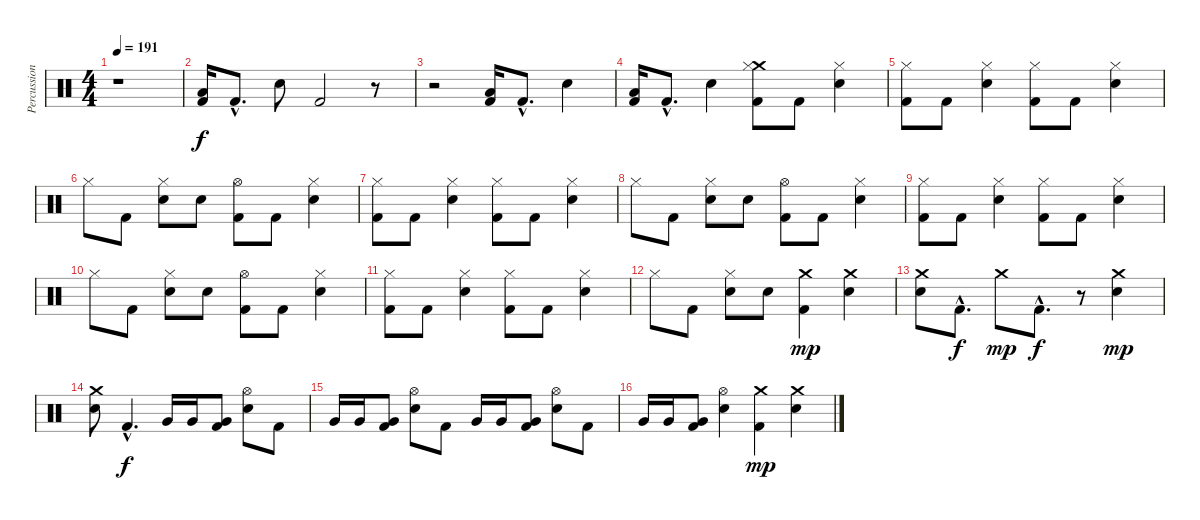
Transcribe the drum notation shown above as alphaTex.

\track ("Percussions" "Percussion") {instrument percussion}
\staff {score}
\articulation defaults
\ts (4 4)
\tempo 191
\clef neutral
\ks c
r.1{dy f} |
("Kick (hit) 2" "Low Tom (hit)").16 "Kick (hit) 2"{hac}.8{d} "Snare (hit) 2".8 "Kick (hit) 2".2 r.8 |
r.2 ("Kick (hit) 2" "Low Tom (hit)").16 "Kick (hit) 2"{hac}.8{d} "Snare (hit) 2".4 |
("Kick (hit) 2" "Low Tom (hit)").16 "Kick (hit) 2"{hac}.8{d} "Snare (hit) 2".4 ("Kick (hit) 2" "Crash medium (hit)" "Hi-Hat (closed)").8 "Kick (hit) 2".8 ("Snare (hit) 2" "Hi-Hat (closed)").4 |
("Kick (hit) 2" "Hi-Hat (closed)").8 "Kick (hit) 2".8 ("Snare (hit) 2" "Hi-Hat (closed)").4 ("Kick (hit) 2" "Hi-Hat (closed)").8 "Kick (hit) 2".8 ("Snare (hit) 2" "Hi-Hat (closed)").4 |
"Hi-Hat (closed)".8 "Kick (hit) 2".8 ("Snare (hit) 2" "Hi-Hat (closed)").8 "Snare (hit) 2".8 ("Kick (hit) 2" "Hi-Hat (open)").8 "Kick (hit) 2".8 ("Snare (hit) 2" "Hi-Hat (closed)").4 |
("Kick (hit) 2" "Hi-Hat (closed)").8 "Kick (hit) 2".8 ("Snare (hit) 2" "Hi-Hat (closed)").4 ("Kick (hit) 2" "Hi-Hat (closed)").8 "Kick (hit) 2".8 ("Snare (hit) 2" "Hi-Hat (closed)").4 |
"Hi-Hat (closed)".8 "Kick (hit) 2".8 ("Snare (hit) 2" "Hi-Hat (closed)").8 "Snare (hit) 2".8 ("Kick (hit) 2" "Hi-Hat (open)").8 "Kick (hit) 2".8 ("Snare (hit) 2" "Hi-Hat (closed)").4 |
("Kick (hit) 2" "Hi-Hat (closed)").8 "Kick (hit) 2".8 ("Snare (hit) 2" "Hi-Hat (closed)").4 ("Kick (hit) 2" "Hi-Hat (closed)").8 "Kick (hit) 2".8 ("Snare (hit) 2" "Hi-Hat (closed)").4 |
"Hi-Hat (closed)".8 "Kick (hit) 2".8 ("Snare (hit) 2" "Hi-Hat (closed)").8 "Snare (hit) 2".8 ("Kick (hit) 2" "Hi-Hat (open)").8 "Kick (hit) 2".8 ("Snare (hit) 2" "Hi-Hat (closed)").4 |
("Kick (hit) 2" "Hi-Hat (closed)").8 "Kick (hit) 2".8 ("Snare (hit) 2" "Hi-Hat (closed)").4 ("Kick (hit) 2" "Hi-Hat (closed)").8 "Kick (hit) 2".8 ("Snare (hit) 2" "Hi-Hat (closed)").4 |
"Hi-Hat (closed)".8 "Kick (hit) 2".8 ("Snare (hit) 2" "Hi-Hat (closed)").8 "Snare (hit) 2".8 ("Kick (hit) 2" "Crash medium (hit)").4{dy mp} ("Snare (hit) 2" "Crash medium (hit)").4 |
("Snare (hit) 2" "Crash medium (hit)").8 "Kick (hit) 2"{hac}.8{d dy f} "Crash medium (hit)".8{dy mp} "Kick (hit) 2"{hac}.8{d dy f} r.8 ("Snare (hit) 2" "Crash medium (hit)").4{dy mp} |
("Snare (hit) 2" "Crash medium (hit)").8 "Kick (hit) 2"{hac}.4{d dy f} "Very Low Tom (hit)".16 "Very Low Tom (hit)".16 ("Kick (hit) 2" "Very Low Tom (hit)").8 ("Snare (hit) 2" "Hi-Hat (open)").8 "Kick (hit) 2".8 |
"Very Low Tom (hit)".16 "Very Low Tom (hit)".16 ("Kick (hit) 2" "Very Low Tom (hit)").8 ("Snare (hit) 2" "Hi-Hat (open)").8 "Kick (hit) 2".8 "Very Low Tom (hit)".16 "Very Low Tom (hit)".16 ("Kick (hit) 2" "Very Low Tom (hit)").8 ("Snare (hit) 2" "Hi-Hat (open)").8 "Kick (hit) 2".8 |
"Very Low Tom (hit)".16 "Very Low Tom (hit)".16 ("Kick (hit) 2" "Very Low Tom (hit)").8 ("Snare (hit) 2" "Hi-Hat (open)").4 ("Kick (hit) 2" "Crash medium (hit)").4{dy mp} ("Snare (hit) 2" "Crash medium (hit)").4
